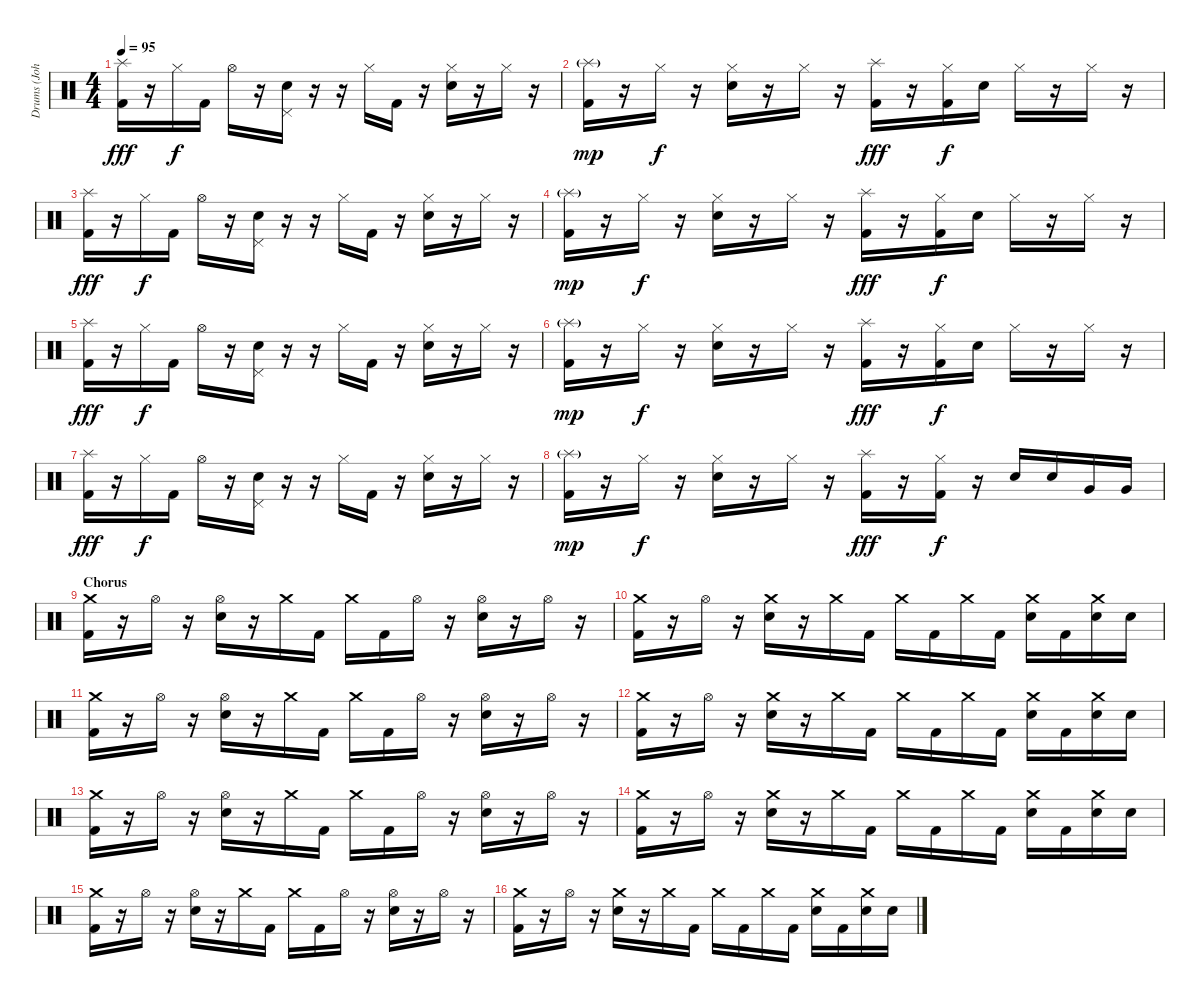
\track ("Drums (John Otto)" "Drums (Joh") {instrument percussion}
\staff {score}
\articulation defaults
\ts (4 4)
\tempo 95
\clef neutral
\ks c
("Splash (hit)" "Kick (hit) 2").16{dy fff} r.16 "Hi-Hat (closed)".16{dy f} "Kick (hit) 2".16 "Hi-Hat (open)".16 r.16 ("Pedal Hi-Hat (hit)" "Electric Snare (hit)").16 r.16 r.16 "Hi-Hat (closed)".16 "Kick (hit) 2".16 r.16 ("Hi-Hat (closed)" "Electric Snare (hit)").16 r.16 "Hi-Hat (closed)".16 r.16 |
("Splash (hit)"{g} "Kick (hit) 2").16{dy mp} r.16 "Hi-Hat (closed)".16{dy f} r.16 ("Hi-Hat (closed)" "Electric Snare (hit)").16 r.16 "Hi-Hat (closed)".16 r.16 ("Splash (hit)" "Kick (hit) 2").16{dy fff} r.16 ("Hi-Hat (closed)" "Kick (hit) 2").16{dy f} "Electric Snare (hit)".16 "Hi-Hat (closed)".16 r.16 "Hi-Hat (closed)".16 r.16 |
("Splash (hit)" "Kick (hit) 2").16{dy fff} r.16 "Hi-Hat (closed)".16{dy f} "Kick (hit) 2".16 "Hi-Hat (open)".16 r.16 ("Pedal Hi-Hat (hit)" "Electric Snare (hit)").16 r.16 r.16 "Hi-Hat (closed)".16 "Kick (hit) 2".16 r.16 ("Hi-Hat (closed)" "Electric Snare (hit)").16 r.16 "Hi-Hat (closed)".16 r.16 |
("Splash (hit)"{g} "Kick (hit) 2").16{dy mp} r.16 "Hi-Hat (closed)".16{dy f} r.16 ("Hi-Hat (closed)" "Electric Snare (hit)").16 r.16 "Hi-Hat (closed)".16 r.16 ("Splash (hit)" "Kick (hit) 2").16{dy fff} r.16 ("Hi-Hat (closed)" "Kick (hit) 2").16{dy f} "Electric Snare (hit)".16 "Hi-Hat (closed)".16 r.16 "Hi-Hat (closed)".16 r.16 |
("Splash (hit)" "Kick (hit) 2").16{dy fff} r.16 "Hi-Hat (closed)".16{dy f} "Kick (hit) 2".16 "Hi-Hat (open)".16 r.16 ("Pedal Hi-Hat (hit)" "Electric Snare (hit)").16 r.16 r.16 "Hi-Hat (closed)".16 "Kick (hit) 2".16 r.16 ("Hi-Hat (closed)" "Electric Snare (hit)").16 r.16 "Hi-Hat (closed)".16 r.16 |
("Splash (hit)"{g} "Kick (hit) 2").16{dy mp} r.16 "Hi-Hat (closed)".16{dy f} r.16 ("Hi-Hat (closed)" "Electric Snare (hit)").16 r.16 "Hi-Hat (closed)".16 r.16 ("Splash (hit)" "Kick (hit) 2").16{dy fff} r.16 ("Hi-Hat (closed)" "Kick (hit) 2").16{dy f} "Electric Snare (hit)".16 "Hi-Hat (closed)".16 r.16 "Hi-Hat (closed)".16 r.16 |
("Splash (hit)" "Kick (hit) 2").16{dy fff} r.16 "Hi-Hat (closed)".16{dy f} "Kick (hit) 2".16 "Hi-Hat (open)".16 r.16 ("Pedal Hi-Hat (hit)" "Electric Snare (hit)").16 r.16 r.16 "Hi-Hat (closed)".16 "Kick (hit) 2".16 r.16 ("Hi-Hat (closed)" "Electric Snare (hit)").16 r.16 "Hi-Hat (closed)".16 r.16 |
("Splash (hit)"{g} "Kick (hit) 2").16{dy mp} r.16 "Hi-Hat (closed)".16{dy f} r.16 ("Hi-Hat (closed)" "Electric Snare (hit)").16 r.16 "Hi-Hat (closed)".16 r.16 ("Splash (hit)" "Kick (hit) 2").16{dy fff} r.16 ("Hi-Hat (closed)" "Kick (hit) 2").16{dy f} r.16 "Electric Snare (hit)".16 "Electric Snare (hit)".16 "Very Low Tom (hit)".16 "Very Low Tom (hit)".16 |
\section ("" "Chorus")
("Crash medium (hit)" "Kick (hit) 2").16 r.16 "Hi-Hat (open)".16 r.16 ("Hi-Hat (open)" "Electric Snare (hit)").16 r.16 "Crash medium (hit)".16 "Kick (hit) 2".16 "Crash medium (hit)".16 "Kick (hit) 2".16 "Hi-Hat (open)".16 r.16 ("Hi-Hat (open)" "Electric Snare (hit)").16 r.16 "Hi-Hat (open)".16 r.16 |
("Crash medium (hit)" "Kick (hit) 2").16 r.16 "Hi-Hat (open)".16 r.16 ("Crash medium (hit)" "Electric Snare (hit)").16 r.16 "Crash medium (hit)".16 "Kick (hit) 2".16 "Crash medium (hit)".16 "Kick (hit) 2".16 "Crash medium (hit)".16 "Kick (hit) 2".16 ("Crash medium (hit)" "Electric Snare (hit)").16 "Kick (hit) 2".16 ("Crash medium (hit)" "Electric Snare (hit)").16 "Electric Snare (hit)".16 |
("Crash medium (hit)" "Kick (hit) 2").16 r.16 "Hi-Hat (open)".16 r.16 ("Hi-Hat (open)" "Electric Snare (hit)").16 r.16 "Crash medium (hit)".16 "Kick (hit) 2".16 "Crash medium (hit)".16 "Kick (hit) 2".16 "Hi-Hat (open)".16 r.16 ("Hi-Hat (open)" "Electric Snare (hit)").16 r.16 "Hi-Hat (open)".16 r.16 |
("Crash medium (hit)" "Kick (hit) 2").16 r.16 "Hi-Hat (open)".16 r.16 ("Crash medium (hit)" "Electric Snare (hit)").16 r.16 "Crash medium (hit)".16 "Kick (hit) 2".16 "Crash medium (hit)".16 "Kick (hit) 2".16 "Crash medium (hit)".16 "Kick (hit) 2".16 ("Crash medium (hit)" "Electric Snare (hit)").16 "Kick (hit) 2".16 ("Crash medium (hit)" "Electric Snare (hit)").16 "Electric Snare (hit)".16 |
("Crash medium (hit)" "Kick (hit) 2").16 r.16 "Hi-Hat (open)".16 r.16 ("Hi-Hat (open)" "Electric Snare (hit)").16 r.16 "Crash medium (hit)".16 "Kick (hit) 2".16 "Crash medium (hit)".16 "Kick (hit) 2".16 "Hi-Hat (open)".16 r.16 ("Hi-Hat (open)" "Electric Snare (hit)").16 r.16 "Hi-Hat (open)".16 r.16 |
("Crash medium (hit)" "Kick (hit) 2").16 r.16 "Hi-Hat (open)".16 r.16 ("Crash medium (hit)" "Electric Snare (hit)").16 r.16 "Crash medium (hit)".16 "Kick (hit) 2".16 "Crash medium (hit)".16 "Kick (hit) 2".16 "Crash medium (hit)".16 "Kick (hit) 2".16 ("Crash medium (hit)" "Electric Snare (hit)").16 "Kick (hit) 2".16 ("Crash medium (hit)" "Electric Snare (hit)").16 "Electric Snare (hit)".16 |
("Crash medium (hit)" "Kick (hit) 2").16 r.16 "Hi-Hat (open)".16 r.16 ("Hi-Hat (open)" "Electric Snare (hit)").16 r.16 "Crash medium (hit)".16 "Kick (hit) 2".16 "Crash medium (hit)".16 "Kick (hit) 2".16 "Hi-Hat (open)".16 r.16 ("Hi-Hat (open)" "Electric Snare (hit)").16 r.16 "Hi-Hat (open)".16 r.16 |
("Crash medium (hit)" "Kick (hit) 2").16 r.16 "Hi-Hat (open)".16 r.16 ("Crash medium (hit)" "Electric Snare (hit)").16 r.16 "Crash medium (hit)".16 "Kick (hit) 2".16 "Crash medium (hit)".16 "Kick (hit) 2".16 "Crash medium (hit)".16 "Kick (hit) 2".16 ("Crash medium (hit)" "Electric Snare (hit)").16 "Kick (hit) 2".16 ("Crash medium (hit)" "Electric Snare (hit)").16 "Electric Snare (hit)".16
